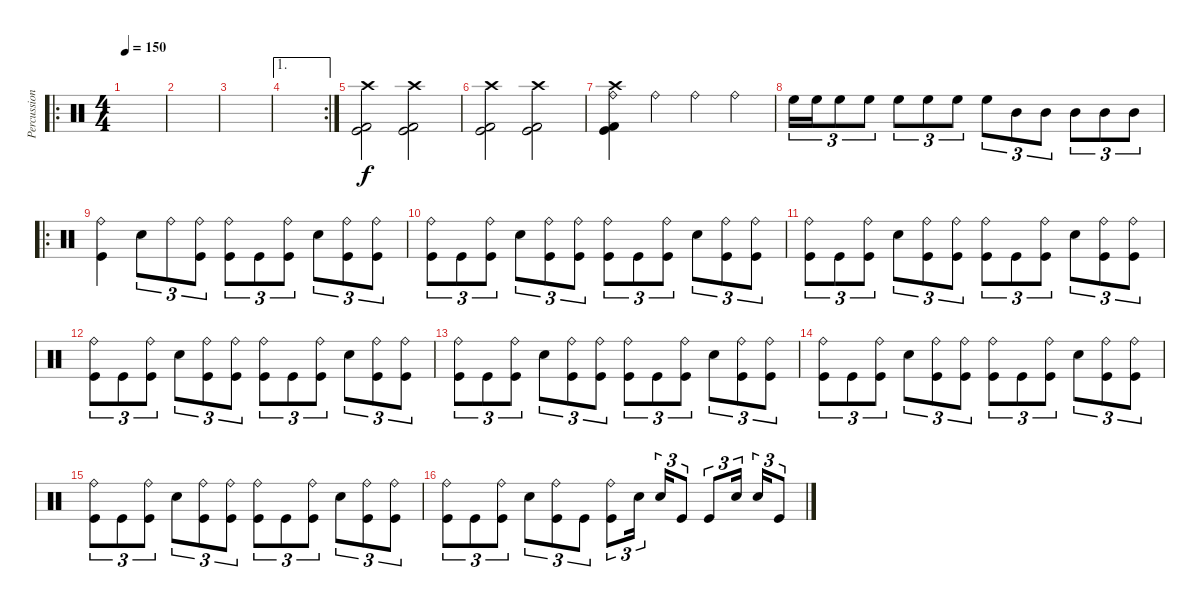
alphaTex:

\track ("Percussion" "Percussion") {instrument percussion}
\staff {score}
\articulation defaults
\ro
\ts (4 4)
\tempo 150
\clef neutral
\ks c
|
|
|
\ae 1
\rc 2
|
("Crash high (hit)" "Kick (hit)" "Kick (hit) 2").2 ("Crash high (hit)" "Kick (hit)" "Kick (hit) 2").2 |
("Crash high (hit)" "Kick (hit)" "Kick (hit) 2").2 ("Crash high (hit)" "Kick (hit)" "Kick (hit) 2").2 |
("Ride (bell)" "Kick (hit) 2" "Crash high (hit)" "Kick (hit)").4 "Ride (bell)".4 "Ride (bell)".4 "Ride (bell)".4 |
"High Floor Tom (hit)".16{tu (3 2)} "High Floor Tom (hit)".16{tu (3 2)} "High Floor Tom (hit)".8{tu (3 2)} "High Floor Tom (hit)".8{tu (3 2)} "High Floor Tom (hit)".8{tu (3 2)} "High Floor Tom (hit)".8{tu (3 2)} "High Floor Tom (hit)".8{tu (3 2)} "High Floor Tom (hit)".8{tu (3 2)} "Mid Tom (hit)".8{tu (3 2)} "Mid Tom (hit)".8{tu (3 2)} "Mid Tom (hit)".8{tu (3 2)} "Mid Tom (hit)".8{tu (3 2)} "Mid Tom (hit)".8{tu (3 2)} |
\ro
("Ride (bell)" "Kick (hit)").4 "Snare (hit) 2".8{tu (3 2)} "Ride (bell)".8{tu (3 2)} ("Ride (bell)" "Kick (hit)").8{tu (3 2)} ("Ride (bell)" "Kick (hit)").8{tu (3 2)} "Kick (hit)".8{tu (3 2)} ("Ride (bell)" "Kick (hit)").8{tu (3 2)} "Snare (hit) 2".8{tu (3 2)} ("Ride (bell)" "Kick (hit)").8{tu (3 2)} ("Ride (bell)" "Kick (hit)").8{tu (3 2)} |
("Ride (bell)" "Kick (hit)").8{tu (3 2)} "Kick (hit)".8{tu (3 2)} ("Ride (bell)" "Kick (hit)").8{tu (3 2)} "Snare (hit) 2".8{tu (3 2)} ("Ride (bell)" "Kick (hit)").8{tu (3 2)} ("Ride (bell)" "Kick (hit)").8{tu (3 2)} ("Ride (bell)" "Kick (hit)").8{tu (3 2)} "Kick (hit)".8{tu (3 2)} ("Ride (bell)" "Kick (hit)").8{tu (3 2)} "Snare (hit) 2".8{tu (3 2)} ("Ride (bell)" "Kick (hit)").8{tu (3 2)} ("Ride (bell)" "Kick (hit)").8{tu (3 2)} |
("Ride (bell)" "Kick (hit)").8{tu (3 2)} "Kick (hit)".8{tu (3 2)} ("Ride (bell)" "Kick (hit)").8{tu (3 2)} "Snare (hit) 2".8{tu (3 2)} ("Ride (bell)" "Kick (hit)").8{tu (3 2)} ("Ride (bell)" "Kick (hit)").8{tu (3 2)} ("Ride (bell)" "Kick (hit)").8{tu (3 2)} "Kick (hit)".8{tu (3 2)} ("Ride (bell)" "Kick (hit)").8{tu (3 2)} "Snare (hit) 2".8{tu (3 2)} ("Ride (bell)" "Kick (hit)").8{tu (3 2)} ("Ride (bell)" "Kick (hit)").8{tu (3 2)} |
("Ride (bell)" "Kick (hit)").8{tu (3 2)} "Kick (hit)".8{tu (3 2)} ("Ride (bell)" "Kick (hit)").8{tu (3 2)} "Snare (hit) 2".8{tu (3 2)} ("Ride (bell)" "Kick (hit)").8{tu (3 2)} ("Ride (bell)" "Kick (hit)").8{tu (3 2)} ("Ride (bell)" "Kick (hit)").8{tu (3 2)} "Kick (hit)".8{tu (3 2)} ("Ride (bell)" "Kick (hit)").8{tu (3 2)} "Snare (hit) 2".8{tu (3 2)} ("Ride (bell)" "Kick (hit)").8{tu (3 2)} ("Ride (bell)" "Kick (hit)").8{tu (3 2)} |
("Ride (bell)" "Kick (hit)").8{tu (3 2)} "Kick (hit)".8{tu (3 2)} ("Ride (bell)" "Kick (hit)").8{tu (3 2)} "Snare (hit) 2".8{tu (3 2)} ("Ride (bell)" "Kick (hit)").8{tu (3 2)} ("Ride (bell)" "Kick (hit)").8{tu (3 2)} ("Ride (bell)" "Kick (hit)").8{tu (3 2)} "Kick (hit)".8{tu (3 2)} ("Ride (bell)" "Kick (hit)").8{tu (3 2)} "Snare (hit) 2".8{tu (3 2)} ("Ride (bell)" "Kick (hit)").8{tu (3 2)} ("Ride (bell)" "Kick (hit)").8{tu (3 2)} |
("Ride (bell)" "Kick (hit)").8{tu (3 2)} "Kick (hit)".8{tu (3 2)} ("Ride (bell)" "Kick (hit)").8{tu (3 2)} "Snare (hit) 2".8{tu (3 2)} ("Ride (bell)" "Kick (hit)").8{tu (3 2)} ("Ride (bell)" "Kick (hit)").8{tu (3 2)} ("Ride (bell)" "Kick (hit)").8{tu (3 2)} "Kick (hit)".8{tu (3 2)} ("Ride (bell)" "Kick (hit)").8{tu (3 2)} "Snare (hit) 2".8{tu (3 2)} ("Ride (bell)" "Kick (hit)").8{tu (3 2)} ("Ride (bell)" "Kick (hit)").8{tu (3 2)} |
("Ride (bell)" "Kick (hit)").8{tu (3 2)} "Kick (hit)".8{tu (3 2)} ("Ride (bell)" "Kick (hit)").8{tu (3 2)} "Snare (hit) 2".8{tu (3 2)} ("Ride (bell)" "Kick (hit)").8{tu (3 2)} ("Ride (bell)" "Kick (hit)").8{tu (3 2)} ("Ride (bell)" "Kick (hit)").8{tu (3 2)} "Kick (hit)".8{tu (3 2)} ("Ride (bell)" "Kick (hit)").8{tu (3 2)} "Snare (hit) 2".8{tu (3 2)} ("Ride (bell)" "Kick (hit)").8{tu (3 2)} ("Ride (bell)" "Kick (hit)").8{tu (3 2)} |
("Ride (bell)" "Kick (hit)").8{tu (3 2)} "Kick (hit)".8{tu (3 2)} ("Ride (bell)" "Kick (hit)").8{tu (3 2)} "Snare (hit) 2".8{tu (3 2)} ("Ride (bell)" "Kick (hit)").8{tu (3 2)} "Kick (hit)".8{tu (3 2)} ("Ride (bell)" "Kick (hit)").8{tu (3 2)} "Snare (hit) 2".16{tu (3 2)} "Snare (hit) 2".16{tu (3 2)} "Kick (hit)".8{tu (3 2)} "Kick (hit)".8{tu (3 2)} "Snare (hit) 2".16{tu (3 2)} "Snare (hit) 2".16{tu (3 2)} "Kick (hit)".8{tu (3 2)}
